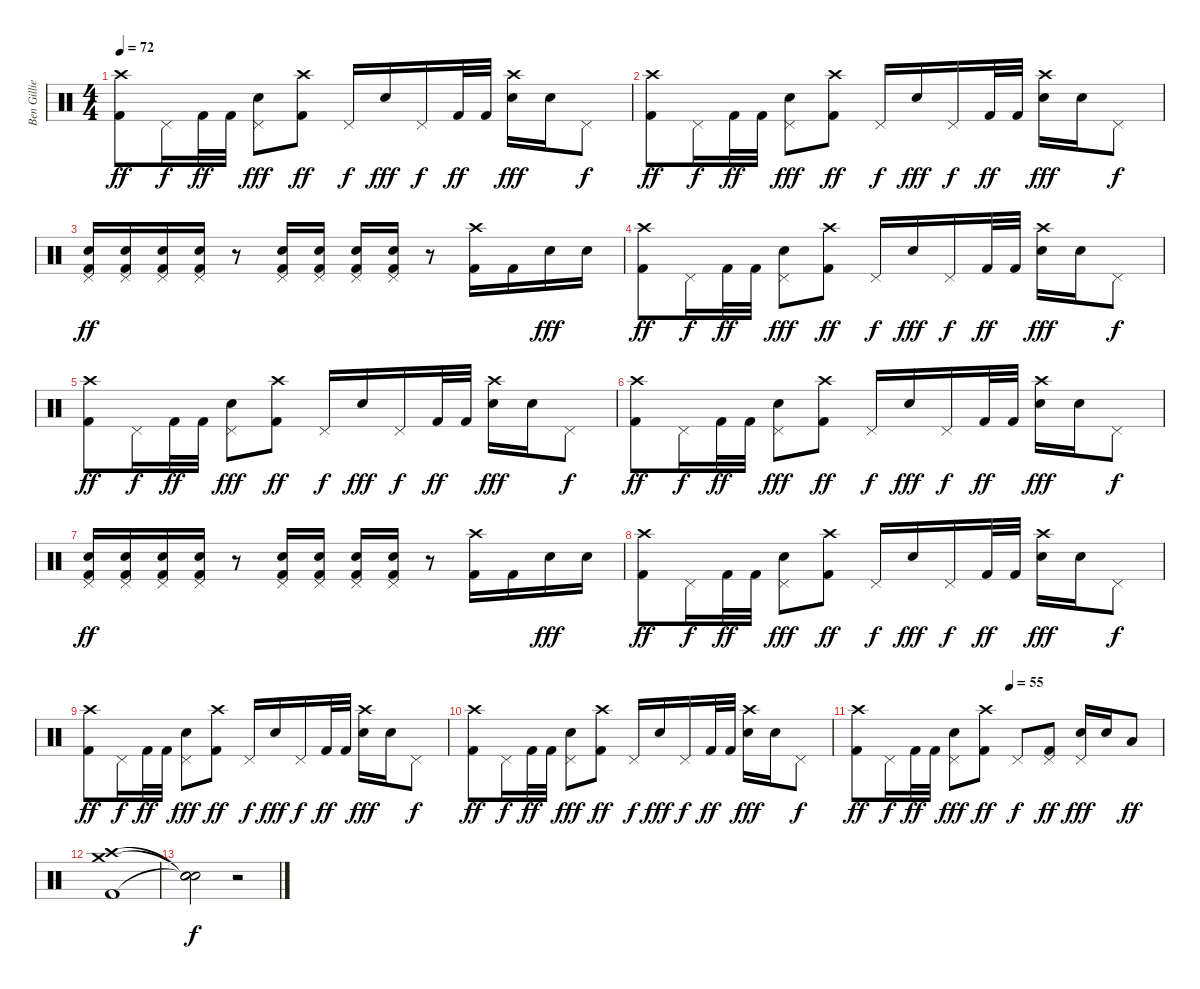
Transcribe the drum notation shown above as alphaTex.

\track ("Ben Gillies" "Ben Gillie") {instrument percussion}
\staff {score}
\articulation defaults
\ts (4 4)
\tempo 72
\clef neutral
\ks c
("Crash high (hit)" "Kick (hit) 2").8{dy ff} "Pedal Hi-Hat (hit)".16{dy f} "Kick (hit) 2".32{dy ff} "Kick (hit) 2".32 ("Pedal Hi-Hat (hit)" "Electric Snare (hit)").8{dy fff} ("Crash high (hit)" "Kick (hit) 2").8{dy ff} "Pedal Hi-Hat (hit)".16{dy f} "Electric Snare (hit)".16{dy fff} "Pedal Hi-Hat (hit)".16{dy f} "Kick (hit) 2".32{dy ff} "Kick (hit) 2".32 ("Crash high (hit)" "Electric Snare (hit)").16{dy fff} "Electric Snare (hit)".16 "Pedal Hi-Hat (hit)".8{dy f} |
("Crash high (hit)" "Kick (hit) 2").8{dy ff} "Pedal Hi-Hat (hit)".16{dy f} "Kick (hit) 2".32{dy ff} "Kick (hit) 2".32 ("Pedal Hi-Hat (hit)" "Electric Snare (hit)").8{dy fff} ("Crash high (hit)" "Kick (hit) 2").8{dy ff} "Pedal Hi-Hat (hit)".16{dy f} "Electric Snare (hit)".16{dy fff} "Pedal Hi-Hat (hit)".16{dy f} "Kick (hit) 2".32{dy ff} "Kick (hit) 2".32 ("Crash high (hit)" "Electric Snare (hit)").16{dy fff} "Electric Snare (hit)".16 "Pedal Hi-Hat (hit)".8{dy f} |
("Pedal Hi-Hat (hit)" "Electric Snare (hit)" "Kick (hit) 2").16{dy ff} ("Pedal Hi-Hat (hit)" "Electric Snare (hit)" "Kick (hit) 2").16 ("Pedal Hi-Hat (hit)" "Electric Snare (hit)" "Kick (hit) 2").16 ("Pedal Hi-Hat (hit)" "Electric Snare (hit)" "Kick (hit) 2").16 r.8 ("Pedal Hi-Hat (hit)" "Electric Snare (hit)" "Kick (hit) 2").16 ("Pedal Hi-Hat (hit)" "Electric Snare (hit)" "Kick (hit) 2").16 ("Pedal Hi-Hat (hit)" "Electric Snare (hit)" "Kick (hit) 2").16 ("Pedal Hi-Hat (hit)" "Electric Snare (hit)" "Kick (hit) 2").16 r.8 ("Crash high (hit)" "Kick (hit) 2").16 "Kick (hit) 2".16 "Electric Snare (hit)".16{dy fff} "Electric Snare (hit)".16 |
("Crash high (hit)" "Kick (hit) 2").8{dy ff} "Pedal Hi-Hat (hit)".16{dy f} "Kick (hit) 2".32{dy ff} "Kick (hit) 2".32 ("Pedal Hi-Hat (hit)" "Electric Snare (hit)").8{dy fff} ("Crash high (hit)" "Kick (hit) 2").8{dy ff} "Pedal Hi-Hat (hit)".16{dy f} "Electric Snare (hit)".16{dy fff} "Pedal Hi-Hat (hit)".16{dy f} "Kick (hit) 2".32{dy ff} "Kick (hit) 2".32 ("Crash high (hit)" "Electric Snare (hit)").16{dy fff} "Electric Snare (hit)".16 "Pedal Hi-Hat (hit)".8{dy f} |
("Crash high (hit)" "Kick (hit) 2").8{dy ff} "Pedal Hi-Hat (hit)".16{dy f} "Kick (hit) 2".32{dy ff} "Kick (hit) 2".32 ("Pedal Hi-Hat (hit)" "Electric Snare (hit)").8{dy fff} ("Crash high (hit)" "Kick (hit) 2").8{dy ff} "Pedal Hi-Hat (hit)".16{dy f} "Electric Snare (hit)".16{dy fff} "Pedal Hi-Hat (hit)".16{dy f} "Kick (hit) 2".32{dy ff} "Kick (hit) 2".32 ("Crash high (hit)" "Electric Snare (hit)").16{dy fff} "Electric Snare (hit)".16 "Pedal Hi-Hat (hit)".8{dy f} |
("Crash high (hit)" "Kick (hit) 2").8{dy ff} "Pedal Hi-Hat (hit)".16{dy f} "Kick (hit) 2".32{dy ff} "Kick (hit) 2".32 ("Pedal Hi-Hat (hit)" "Electric Snare (hit)").8{dy fff} ("Crash high (hit)" "Kick (hit) 2").8{dy ff} "Pedal Hi-Hat (hit)".16{dy f} "Electric Snare (hit)".16{dy fff} "Pedal Hi-Hat (hit)".16{dy f} "Kick (hit) 2".32{dy ff} "Kick (hit) 2".32 ("Crash high (hit)" "Electric Snare (hit)").16{dy fff} "Electric Snare (hit)".16 "Pedal Hi-Hat (hit)".8{dy f} |
("Pedal Hi-Hat (hit)" "Electric Snare (hit)" "Kick (hit) 2").16{dy ff} ("Pedal Hi-Hat (hit)" "Electric Snare (hit)" "Kick (hit) 2").16 ("Pedal Hi-Hat (hit)" "Electric Snare (hit)" "Kick (hit) 2").16 ("Pedal Hi-Hat (hit)" "Electric Snare (hit)" "Kick (hit) 2").16 r.8 ("Pedal Hi-Hat (hit)" "Electric Snare (hit)" "Kick (hit) 2").16 ("Pedal Hi-Hat (hit)" "Electric Snare (hit)" "Kick (hit) 2").16 ("Pedal Hi-Hat (hit)" "Electric Snare (hit)" "Kick (hit) 2").16 ("Pedal Hi-Hat (hit)" "Electric Snare (hit)" "Kick (hit) 2").16 r.8 ("Crash high (hit)" "Kick (hit) 2").16 "Kick (hit) 2".16 "Electric Snare (hit)".16{dy fff} "Electric Snare (hit)".16 |
("Crash high (hit)" "Kick (hit) 2").8{dy ff} "Pedal Hi-Hat (hit)".16{dy f} "Kick (hit) 2".32{dy ff} "Kick (hit) 2".32 ("Pedal Hi-Hat (hit)" "Electric Snare (hit)").8{dy fff} ("Crash high (hit)" "Kick (hit) 2").8{dy ff} "Pedal Hi-Hat (hit)".16{dy f} "Electric Snare (hit)".16{dy fff} "Pedal Hi-Hat (hit)".16{dy f} "Kick (hit) 2".32{dy ff} "Kick (hit) 2".32 ("Crash high (hit)" "Electric Snare (hit)").16{dy fff} "Electric Snare (hit)".16 "Pedal Hi-Hat (hit)".8{dy f} |
("Crash high (hit)" "Kick (hit) 2").8{dy ff} "Pedal Hi-Hat (hit)".16{dy f} "Kick (hit) 2".32{dy ff} "Kick (hit) 2".32 ("Pedal Hi-Hat (hit)" "Electric Snare (hit)").8{dy fff} ("Crash high (hit)" "Kick (hit) 2").8{dy ff} "Pedal Hi-Hat (hit)".16{dy f} "Electric Snare (hit)".16{dy fff} "Pedal Hi-Hat (hit)".16{dy f} "Kick (hit) 2".32{dy ff} "Kick (hit) 2".32 ("Crash high (hit)" "Electric Snare (hit)").16{dy fff} "Electric Snare (hit)".16 "Pedal Hi-Hat (hit)".8{dy f} |
("Crash high (hit)" "Kick (hit) 2").8{dy ff} "Pedal Hi-Hat (hit)".16{dy f} "Kick (hit) 2".32{dy ff} "Kick (hit) 2".32 ("Pedal Hi-Hat (hit)" "Electric Snare (hit)").8{dy fff} ("Crash high (hit)" "Kick (hit) 2").8{dy ff} "Pedal Hi-Hat (hit)".16{dy f} "Electric Snare (hit)".16{dy fff} "Pedal Hi-Hat (hit)".16{dy f} "Kick (hit) 2".32{dy ff} "Kick (hit) 2".32 ("Crash high (hit)" "Electric Snare (hit)").16{dy fff} "Electric Snare (hit)".16 "Pedal Hi-Hat (hit)".8{dy f} |
\tempo (55 0.5)
("Crash high (hit)" "Kick (hit) 2").8{dy ff} "Pedal Hi-Hat (hit)".16{dy f} "Kick (hit) 2".32{dy ff} "Kick (hit) 2".32 ("Pedal Hi-Hat (hit)" "Electric Snare (hit)").8{dy fff} ("Crash high (hit)" "Kick (hit) 2").8{dy ff} "Pedal Hi-Hat (hit)".8{dy f} ("Pedal Hi-Hat (hit)" "Kick (hit) 2").8{dy ff} ("Pedal Hi-Hat (hit)" "Electric Snare (hit)").16{dy fff} "Electric Snare (hit)".16 "Low Tom (hit)".8{dy ff} |
("Crash high (hit)" "Crash medium (hit)" "Kick (hit) 2").1 |
("Snare (hit)"{t} "Snare (hit)"{t} "Snare (hit)"{t}).2{dy f} r.2
